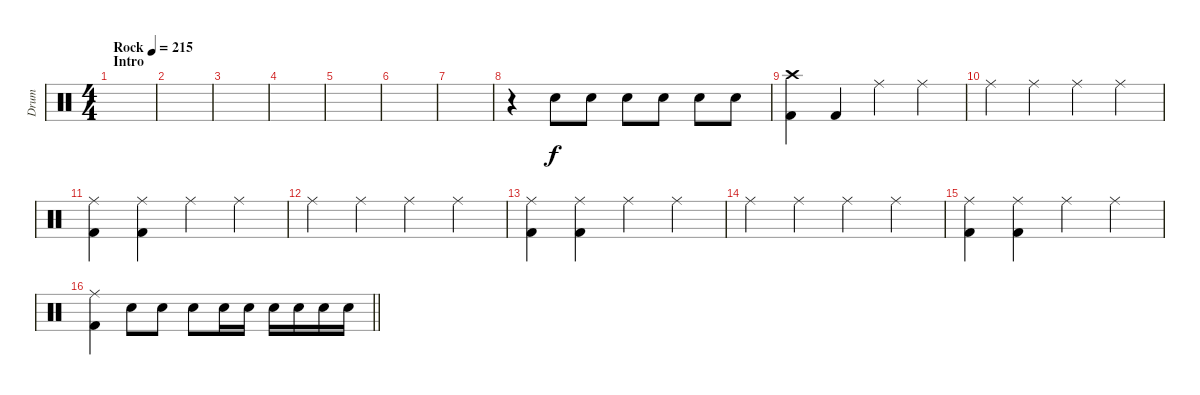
\track ("Drum" "Drum") {instrument percussion}
\staff {score}
\articulation defaults
\ts (4 4)
\section ("" "Intro")
\tempo (215 "Rock")
\clef neutral
\ks c
|
|
|
|
|
|
|
r.4 "Electric Snare (hit)".8 "Electric Snare (hit)".8 "Electric Snare (hit)".8 "Electric Snare (hit)".8 "Electric Snare (hit)".8 "Electric Snare (hit)".8 |
("Kick (hit) 2" "Crash high (hit)").4 "Kick (hit) 2".4 "Ride (middle)".4 "Ride (middle)".4 |
"Ride (middle)".4 "Ride (middle)".4 "Ride (middle)".4 "Ride (middle)".4 |
("Ride (middle)" "Kick (hit) 2").4 ("Kick (hit) 2" "Ride (middle)").4 "Ride (middle)".4 "Ride (middle)".4 |
"Ride (middle)".4 "Ride (middle)".4 "Ride (middle)".4 "Ride (middle)".4 |
("Kick (hit) 2" "Ride (middle)").4 ("Kick (hit) 2" "Ride (middle)").4 "Ride (middle)".4 "Ride (middle)".4 |
"Ride (middle)".4 "Ride (middle)".4 "Ride (middle)".4 "Ride (middle)".4 |
("Kick (hit) 2" "Ride (middle)").4 ("Kick (hit) 2" "Ride (middle)").4 "Ride (middle)".4 "Ride (middle)".4 |
\barLineRight lightlight
("Kick (hit) 2" "Ride (middle)").4 "Electric Snare (hit)".8 "Electric Snare (hit)".8 "Electric Snare (hit)".8 "Electric Snare (hit)".16 "Electric Snare (hit)".16 "Electric Snare (hit)".16 "Electric Snare (hit)".16 "Electric Snare (hit)".16 "Electric Snare (hit)".16
